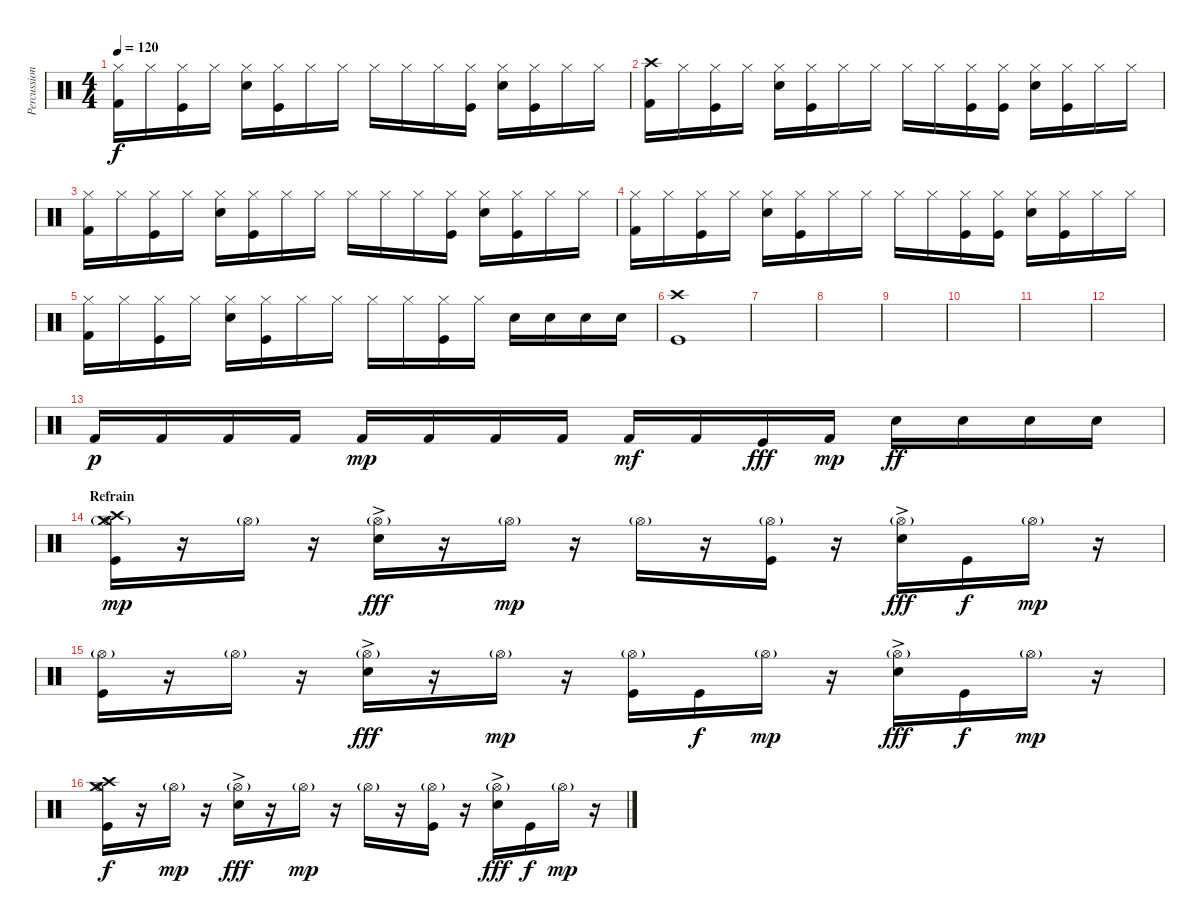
\track ("Percussions" "Percussion") {instrument percussion}
\staff {score}
\articulation defaults
\ts (4 4)
\tempo 120
\clef neutral
\ks c
("Hi-Hat (closed)" "Kick (hit) 2").16{dy f} "Hi-Hat (closed)".16 ("Hi-Hat (closed)" "Kick (hit)").16 "Hi-Hat (closed)".16 ("Hi-Hat (closed)" "Electric Snare (hit)").16 ("Hi-Hat (closed)" "Kick (hit)").16 "Hi-Hat (closed)".16 "Hi-Hat (closed)".16 "Hi-Hat (closed)".16 "Hi-Hat (closed)".16 "Hi-Hat (closed)".16 ("Hi-Hat (closed)" "Kick (hit)").16 ("Hi-Hat (closed)" "Electric Snare (hit)").16 ("Hi-Hat (closed)" "Kick (hit)").16 "Hi-Hat (closed)".16 "Hi-Hat (closed)".16 |
("Crash high (hit)" "Kick (hit) 2").16 "Hi-Hat (closed)".16 ("Hi-Hat (closed)" "Kick (hit)").16 "Hi-Hat (closed)".16 ("Hi-Hat (closed)" "Electric Snare (hit)").16 ("Hi-Hat (closed)" "Kick (hit)").16 "Hi-Hat (closed)".16 "Hi-Hat (closed)".16 "Hi-Hat (closed)".16 "Hi-Hat (closed)".16 ("Hi-Hat (closed)" "Kick (hit)").16 ("Hi-Hat (closed)" "Kick (hit)").16 ("Hi-Hat (closed)" "Electric Snare (hit)").16 ("Hi-Hat (closed)" "Kick (hit)").16 "Hi-Hat (closed)".16 "Hi-Hat (closed)".16 |
("Hi-Hat (closed)" "Kick (hit) 2").16 "Hi-Hat (closed)".16 ("Hi-Hat (closed)" "Kick (hit)").16 "Hi-Hat (closed)".16 ("Hi-Hat (closed)" "Electric Snare (hit)").16 ("Hi-Hat (closed)" "Kick (hit)").16 "Hi-Hat (closed)".16 "Hi-Hat (closed)".16 "Hi-Hat (closed)".16 "Hi-Hat (closed)".16 "Hi-Hat (closed)".16 ("Hi-Hat (closed)" "Kick (hit)").16 ("Hi-Hat (closed)" "Electric Snare (hit)").16 ("Hi-Hat (closed)" "Kick (hit)").16 "Hi-Hat (closed)".16 "Hi-Hat (closed)".16 |
("Hi-Hat (closed)" "Kick (hit) 2").16 "Hi-Hat (closed)".16 ("Hi-Hat (closed)" "Kick (hit)").16 "Hi-Hat (closed)".16 ("Hi-Hat (closed)" "Electric Snare (hit)").16 ("Hi-Hat (closed)" "Kick (hit)").16 "Hi-Hat (closed)".16 "Hi-Hat (closed)".16 "Hi-Hat (closed)".16 "Hi-Hat (closed)".16 ("Hi-Hat (closed)" "Kick (hit)").16 ("Hi-Hat (closed)" "Kick (hit)").16 ("Hi-Hat (closed)" "Electric Snare (hit)").16 ("Hi-Hat (closed)" "Kick (hit)").16 "Hi-Hat (closed)".16 "Hi-Hat (closed)".16 |
("Hi-Hat (closed)" "Kick (hit) 2").16 "Hi-Hat (closed)".16 ("Hi-Hat (closed)" "Kick (hit)").16 "Hi-Hat (closed)".16 ("Hi-Hat (closed)" "Electric Snare (hit)").16 ("Hi-Hat (closed)" "Kick (hit)").16 "Hi-Hat (closed)".16 "Hi-Hat (closed)".16 "Hi-Hat (closed)".16 "Hi-Hat (closed)".16 ("Hi-Hat (closed)" "Kick (hit)").16 "Hi-Hat (closed)".16 "Electric Snare (hit)".16 "Electric Snare (hit)".16 "Electric Snare (hit)".16 "Electric Snare (hit)".16 |
("Crash high (hit)" "Kick (hit)").1 |
|
|
|
|
|
|
"Kick (hit) 2".16{dy p} "Kick (hit) 2".16 "Kick (hit) 2".16 "Kick (hit) 2".16 "Kick (hit) 2".16{dy mp} "Kick (hit) 2".16 "Kick (hit) 2".16 "Kick (hit) 2".16 "Kick (hit) 2".16{dy mf} "Kick (hit) 2".16 "Kick (hit)".16{dy fff} "Kick (hit) 2".16{dy mp} "Electric Snare (hit)".16{dy ff} "Electric Snare (hit)".16 "Electric Snare (hit)".16 "Electric Snare (hit)".16 |
\section ("" "Refrain")
("Crash high (hit)" "Hi-Hat (open)"{g} "Crash medium (hit)" "Kick (hit)").16{dy mp} r.16 "Hi-Hat (open)"{g}.16 r.16 ("Hi-Hat (open)"{g} "Electric Snare (hit)"{ac}).16{dy fff} r.16 "Hi-Hat (open)"{g}.16{dy mp} r.16 "Hi-Hat (open)"{g}.16 r.16 ("Hi-Hat (open)"{g} "Kick (hit)").16 r.16 ("Hi-Hat (open)"{g} "Electric Snare (hit)"{ac}).16{dy fff} "Kick (hit)".16{dy f} "Hi-Hat (open)"{g}.16{dy mp} r.16 |
("Hi-Hat (open)"{g} "Kick (hit)").16 r.16 "Hi-Hat (open)"{g}.16 r.16 ("Hi-Hat (open)"{g} "Electric Snare (hit)"{ac}).16{dy fff} r.16 "Hi-Hat (open)"{g}.16{dy mp} r.16 ("Hi-Hat (open)"{g} "Kick (hit)").16 "Kick (hit)".16{dy f} "Hi-Hat (open)"{g}.16{dy mp} r.16 ("Hi-Hat (open)"{g} "Electric Snare (hit)"{ac}).16{dy fff} "Kick (hit)".16{dy f} "Hi-Hat (open)"{g}.16{dy mp} r.16 |
("Crash high (hit)" "Hi-Hat (open)" "Crash medium (hit)" "Kick (hit)").16{dy f} r.16 "Hi-Hat (open)"{g}.16{dy mp} r.16 ("Hi-Hat (open)"{g} "Electric Snare (hit)"{ac}).16{dy fff} r.16 "Hi-Hat (open)"{g}.16{dy mp} r.16 "Hi-Hat (open)"{g}.16 r.16 ("Hi-Hat (open)"{g} "Kick (hit)").16 r.16 ("Hi-Hat (open)"{g} "Electric Snare (hit)"{ac}).16{dy fff} "Kick (hit)".16{dy f} "Hi-Hat (open)"{g}.16{dy mp} r.16
